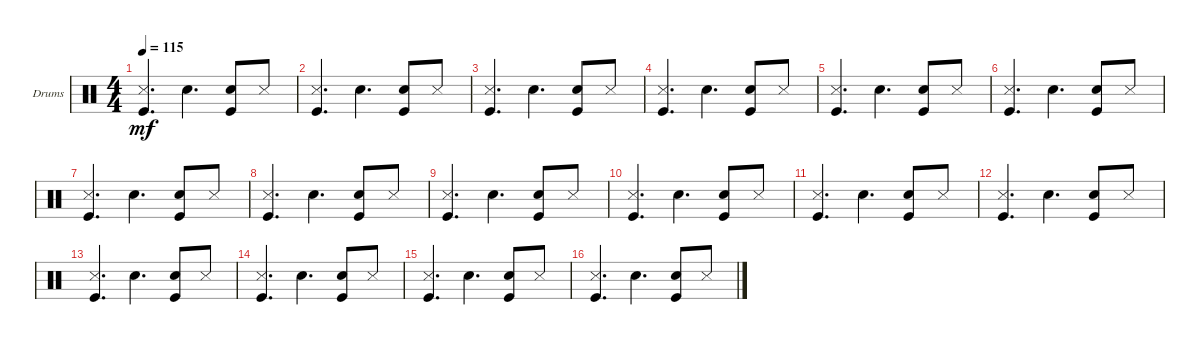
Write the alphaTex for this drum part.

\defaultSystemsLayout 4
\bracketExtendMode groupsimilarinstruments
\firstSystemTrackNameOrientation horizontal
\otherSystemsTrackNameOrientation horizontal
\track ("Drumkit" "Drums") {instrument percussion}
\staff {score}
\articulation defaults
\ts (4 4)
\tempo 115
\clef neutral
\ks c
("Snare (side stick) 3" "Kick (hit)").4{d dy mf} "Snare (hit) 2".4{d} ("Snare (hit) 2" "Kick (hit)").8 "Snare (side stick) 3".8 |
("Snare (side stick) 3" "Kick (hit)").4{d} "Snare (hit) 2".4{d} ("Snare (hit) 2" "Kick (hit)").8 "Snare (side stick) 3".8 |
("Snare (side stick) 3" "Kick (hit)").4{d} "Snare (hit) 2".4{d} ("Snare (hit) 2" "Kick (hit)").8 "Snare (side stick) 3".8 |
("Snare (side stick) 3" "Kick (hit)").4{d} "Snare (hit) 2".4{d} ("Snare (hit) 2" "Kick (hit)").8 "Snare (side stick) 3".8 |
("Snare (side stick) 3" "Kick (hit)").4{d} "Snare (hit) 2".4{d} ("Snare (hit) 2" "Kick (hit)").8 "Snare (side stick) 3".8 |
("Snare (side stick) 3" "Kick (hit)").4{d} "Snare (hit) 2".4{d} ("Snare (hit) 2" "Kick (hit)").8 "Snare (side stick) 3".8 |
("Snare (side stick) 3" "Kick (hit)").4{d} "Snare (hit) 2".4{d} ("Snare (hit) 2" "Kick (hit)").8 "Snare (side stick) 3".8 |
("Snare (side stick) 3" "Kick (hit)").4{d} "Snare (hit) 2".4{d} ("Snare (hit) 2" "Kick (hit)").8 "Snare (side stick) 3".8 |
("Snare (side stick) 3" "Kick (hit)").4{d} "Snare (hit) 2".4{d} ("Snare (hit) 2" "Kick (hit)").8 "Snare (side stick) 3".8 |
("Snare (side stick) 3" "Kick (hit)").4{d} "Snare (hit) 2".4{d} ("Snare (hit) 2" "Kick (hit)").8 "Snare (side stick) 3".8 |
("Snare (side stick) 3" "Kick (hit)").4{d} "Snare (hit) 2".4{d} ("Snare (hit) 2" "Kick (hit)").8 "Snare (side stick) 3".8 |
("Snare (side stick) 3" "Kick (hit)").4{d} "Snare (hit) 2".4{d} ("Snare (hit) 2" "Kick (hit)").8 "Snare (side stick) 3".8 |
("Snare (side stick) 3" "Kick (hit)").4{d} "Snare (hit) 2".4{d} ("Snare (hit) 2" "Kick (hit)").8 "Snare (side stick) 3".8 |
("Snare (side stick) 3" "Kick (hit)").4{d} "Snare (hit) 2".4{d} ("Snare (hit) 2" "Kick (hit)").8 "Snare (side stick) 3".8 |
("Snare (side stick) 3" "Kick (hit)").4{d} "Snare (hit) 2".4{d} ("Snare (hit) 2" "Kick (hit)").8 "Snare (side stick) 3".8 |
("Snare (side stick) 3" "Kick (hit)").4{d} "Snare (hit) 2".4{d} ("Snare (hit) 2" "Kick (hit)").8 "Snare (side stick) 3".8
